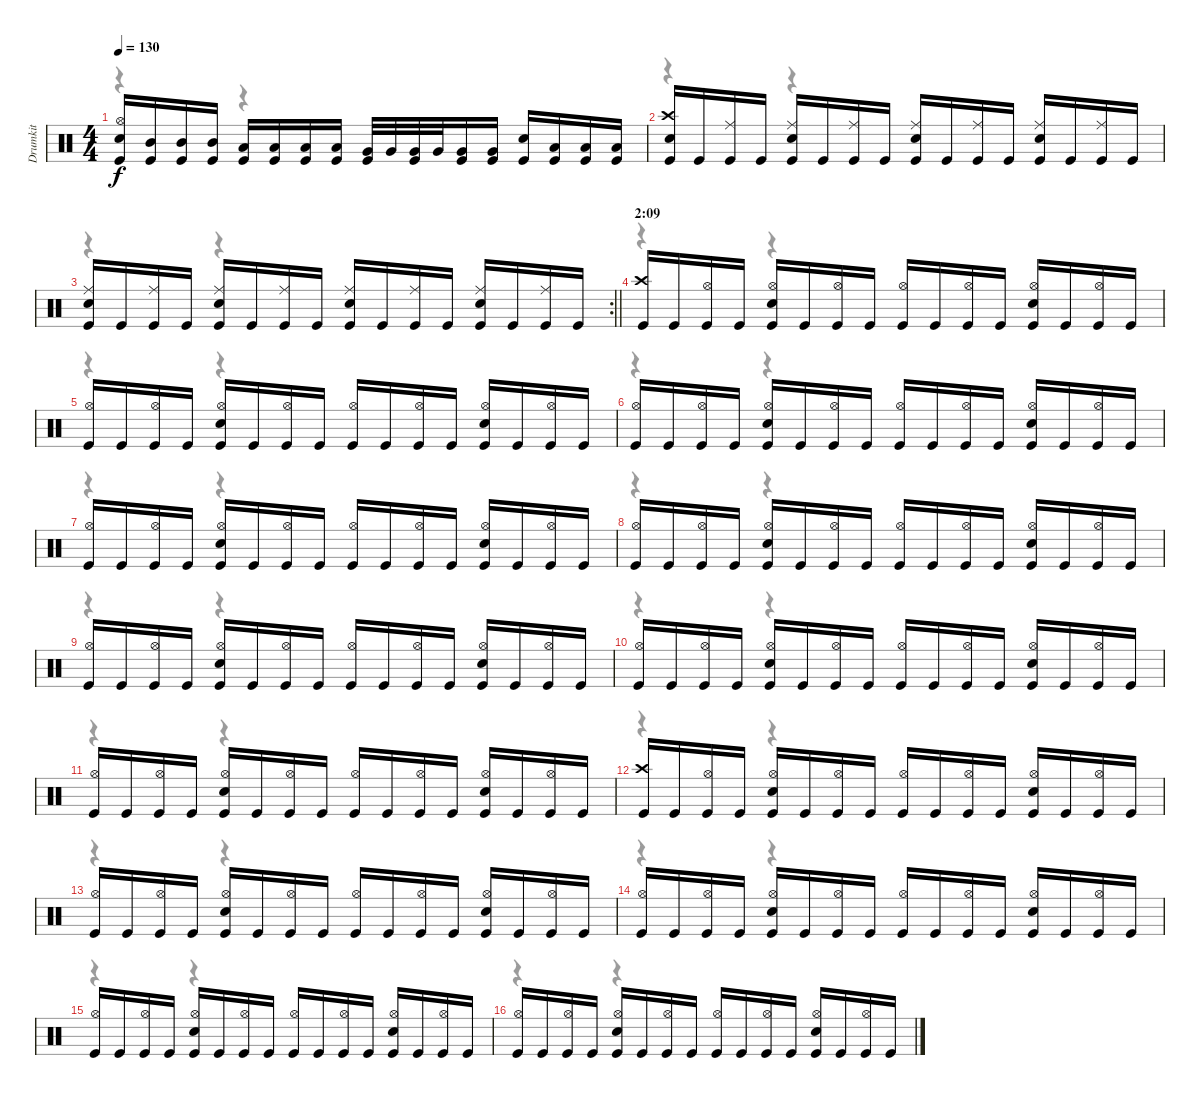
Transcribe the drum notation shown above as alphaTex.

\track ("Drumkit" "Drumkit") {instrument percussion}
\staff {score}
\articulation defaults
\voice
\ts (4 4)
\tempo 130
\clef neutral
\ks c
("Hi-Hat (open)" "Snare (hit) 2" "Kick (hit)").16{dy f} ("Mid Tom (hit)" "Kick (hit)").16 ("Mid Tom (hit)" "Kick (hit)").16 ("Mid Tom (hit)" "Kick (hit)").16 ("Low Tom (hit)" "Kick (hit)").16 ("Low Tom (hit)" "Kick (hit)").16 ("Low Tom (hit)" "Kick (hit)").16 ("Low Tom (hit)" "Kick (hit)").16 ("Very Low Tom (hit)" "Kick (hit)").32 "Very Low Tom (hit)".32 ("Very Low Tom (hit)" "Kick (hit)").32 "Very Low Tom (hit)".32 ("Very Low Tom (hit)" "Kick (hit)").16 ("Very Low Tom (hit)" "Kick (hit)").16 ("Snare (hit) 2" "Kick (hit)").16 ("Low Floor Tom (hit)" "Kick (hit)").16 ("Low Floor Tom (hit)" "Kick (hit)").16 ("Low Floor Tom (hit)" "Kick (hit)").16 |
("Crash high (hit)" "Snare (hit) 2" "Kick (hit)").16 "Kick (hit)".16 ("Ride (middle)" "Kick (hit)").16 "Kick (hit)".16 ("Ride (middle)" "Snare (hit) 2" "Kick (hit)").16 "Kick (hit)".16 ("Ride (middle)" "Kick (hit)").16 "Kick (hit)".16 ("Ride (middle)" "Snare (hit) 2" "Kick (hit)").16 "Kick (hit)".16 ("Ride (middle)" "Kick (hit)").16 "Kick (hit)".16 ("Ride (middle)" "Snare (hit) 2" "Kick (hit)").16 "Kick (hit)".16 ("Ride (middle)" "Kick (hit)").16 "Kick (hit)".16 |
\rc 2
\barLineRight lightlight
("Ride (middle)" "Snare (hit) 2" "Kick (hit)").16 "Kick (hit)".16 ("Ride (middle)" "Kick (hit)").16 "Kick (hit)".16 ("Ride (middle)" "Snare (hit) 2" "Kick (hit)").16 "Kick (hit)".16 ("Ride (middle)" "Kick (hit)").16 "Kick (hit)".16 ("Ride (middle)" "Snare (hit) 2" "Kick (hit)").16 "Kick (hit)".16 ("Ride (middle)" "Kick (hit)").16 "Kick (hit)".16 ("Ride (middle)" "Snare (hit) 2" "Kick (hit)").16 "Kick (hit)".16 ("Ride (middle)" "Kick (hit)").16 "Kick (hit)".16 |
\section ("" "2:09")
("Crash high (hit)" "Kick (hit)").16 "Kick (hit)".16 ("Hi-Hat (open)" "Kick (hit)").16 "Kick (hit)".16 ("Hi-Hat (open)" "Snare (hit) 2" "Kick (hit)").16 "Kick (hit)".16 ("Hi-Hat (open)" "Kick (hit)").16 "Kick (hit)".16 ("Hi-Hat (open)" "Kick (hit)").16 "Kick (hit)".16 ("Hi-Hat (open)" "Kick (hit)").16 "Kick (hit)".16 ("Hi-Hat (open)" "Snare (hit) 2" "Kick (hit)").16 "Kick (hit)".16 ("Hi-Hat (open)" "Kick (hit)").16 "Kick (hit)".16 |
("Hi-Hat (open)" "Kick (hit)").16 "Kick (hit)".16 ("Hi-Hat (open)" "Kick (hit)").16 "Kick (hit)".16 ("Hi-Hat (open)" "Snare (hit) 2" "Kick (hit)").16 "Kick (hit)".16 ("Hi-Hat (open)" "Kick (hit)").16 "Kick (hit)".16 ("Hi-Hat (open)" "Kick (hit)").16 "Kick (hit)".16 ("Hi-Hat (open)" "Kick (hit)").16 "Kick (hit)".16 ("Hi-Hat (open)" "Snare (hit) 2" "Kick (hit)").16 "Kick (hit)".16 ("Hi-Hat (open)" "Kick (hit)").16 "Kick (hit)".16 |
("Hi-Hat (open)" "Kick (hit)").16 "Kick (hit)".16 ("Hi-Hat (open)" "Kick (hit)").16 "Kick (hit)".16 ("Hi-Hat (open)" "Snare (hit) 2" "Kick (hit)").16 "Kick (hit)".16 ("Hi-Hat (open)" "Kick (hit)").16 "Kick (hit)".16 ("Hi-Hat (open)" "Kick (hit)").16 "Kick (hit)".16 ("Hi-Hat (open)" "Kick (hit)").16 "Kick (hit)".16 ("Hi-Hat (open)" "Snare (hit) 2" "Kick (hit)").16 "Kick (hit)".16 ("Hi-Hat (open)" "Kick (hit)").16 "Kick (hit)".16 |
("Hi-Hat (open)" "Kick (hit)").16 "Kick (hit)".16 ("Hi-Hat (open)" "Kick (hit)").16 "Kick (hit)".16 ("Hi-Hat (open)" "Snare (hit) 2" "Kick (hit)").16 "Kick (hit)".16 ("Hi-Hat (open)" "Kick (hit)").16 "Kick (hit)".16 ("Hi-Hat (open)" "Kick (hit)").16 "Kick (hit)".16 ("Hi-Hat (open)" "Kick (hit)").16 "Kick (hit)".16 ("Hi-Hat (open)" "Snare (hit) 2" "Kick (hit)").16 "Kick (hit)".16 ("Hi-Hat (open)" "Kick (hit)").16 "Kick (hit)".16 |
("Hi-Hat (open)" "Kick (hit)").16 "Kick (hit)".16 ("Hi-Hat (open)" "Kick (hit)").16 "Kick (hit)".16 ("Hi-Hat (open)" "Snare (hit) 2" "Kick (hit)").16 "Kick (hit)".16 ("Hi-Hat (open)" "Kick (hit)").16 "Kick (hit)".16 ("Hi-Hat (open)" "Kick (hit)").16 "Kick (hit)".16 ("Hi-Hat (open)" "Kick (hit)").16 "Kick (hit)".16 ("Hi-Hat (open)" "Snare (hit) 2" "Kick (hit)").16 "Kick (hit)".16 ("Hi-Hat (open)" "Kick (hit)").16 "Kick (hit)".16 |
("Hi-Hat (open)" "Kick (hit)").16 "Kick (hit)".16 ("Hi-Hat (open)" "Kick (hit)").16 "Kick (hit)".16 ("Hi-Hat (open)" "Snare (hit) 2" "Kick (hit)").16 "Kick (hit)".16 ("Hi-Hat (open)" "Kick (hit)").16 "Kick (hit)".16 ("Hi-Hat (open)" "Kick (hit)").16 "Kick (hit)".16 ("Hi-Hat (open)" "Kick (hit)").16 "Kick (hit)".16 ("Hi-Hat (open)" "Snare (hit) 2" "Kick (hit)").16 "Kick (hit)".16 ("Hi-Hat (open)" "Kick (hit)").16 "Kick (hit)".16 |
("Hi-Hat (open)" "Kick (hit)").16 "Kick (hit)".16 ("Hi-Hat (open)" "Kick (hit)").16 "Kick (hit)".16 ("Hi-Hat (open)" "Snare (hit) 2" "Kick (hit)").16 "Kick (hit)".16 ("Hi-Hat (open)" "Kick (hit)").16 "Kick (hit)".16 ("Hi-Hat (open)" "Kick (hit)").16 "Kick (hit)".16 ("Hi-Hat (open)" "Kick (hit)").16 "Kick (hit)".16 ("Hi-Hat (open)" "Snare (hit) 2" "Kick (hit)").16 "Kick (hit)".16 ("Hi-Hat (open)" "Kick (hit)").16 "Kick (hit)".16 |
("Hi-Hat (open)" "Kick (hit)").16 "Kick (hit)".16 ("Hi-Hat (open)" "Kick (hit)").16 "Kick (hit)".16 ("Hi-Hat (open)" "Snare (hit) 2" "Kick (hit)").16 "Kick (hit)".16 ("Hi-Hat (open)" "Kick (hit)").16 "Kick (hit)".16 ("Hi-Hat (open)" "Kick (hit)").16 "Kick (hit)".16 ("Hi-Hat (open)" "Kick (hit)").16 "Kick (hit)".16 ("Hi-Hat (open)" "Snare (hit) 2" "Kick (hit)").16 "Kick (hit)".16 ("Hi-Hat (open)" "Kick (hit)").16 "Kick (hit)".16 |
("Crash high (hit)" "Kick (hit)").16 "Kick (hit)".16 ("Hi-Hat (open)" "Kick (hit)").16 "Kick (hit)".16 ("Hi-Hat (open)" "Snare (hit) 2" "Kick (hit)").16 "Kick (hit)".16 ("Hi-Hat (open)" "Kick (hit)").16 "Kick (hit)".16 ("Hi-Hat (open)" "Kick (hit)").16 "Kick (hit)".16 ("Hi-Hat (open)" "Kick (hit)").16 "Kick (hit)".16 ("Hi-Hat (open)" "Snare (hit) 2" "Kick (hit)").16 "Kick (hit)".16 ("Hi-Hat (open)" "Kick (hit)").16 "Kick (hit)".16 |
("Hi-Hat (open)" "Kick (hit)").16 "Kick (hit)".16 ("Hi-Hat (open)" "Kick (hit)").16 "Kick (hit)".16 ("Hi-Hat (open)" "Snare (hit) 2" "Kick (hit)").16 "Kick (hit)".16 ("Hi-Hat (open)" "Kick (hit)").16 "Kick (hit)".16 ("Hi-Hat (open)" "Kick (hit)").16 "Kick (hit)".16 ("Hi-Hat (open)" "Kick (hit)").16 "Kick (hit)".16 ("Hi-Hat (open)" "Snare (hit) 2" "Kick (hit)").16 "Kick (hit)".16 ("Hi-Hat (open)" "Kick (hit)").16 "Kick (hit)".16 |
("Hi-Hat (open)" "Kick (hit)").16 "Kick (hit)".16 ("Hi-Hat (open)" "Kick (hit)").16 "Kick (hit)".16 ("Hi-Hat (open)" "Snare (hit) 2" "Kick (hit)").16 "Kick (hit)".16 ("Hi-Hat (open)" "Kick (hit)").16 "Kick (hit)".16 ("Hi-Hat (open)" "Kick (hit)").16 "Kick (hit)".16 ("Hi-Hat (open)" "Kick (hit)").16 "Kick (hit)".16 ("Hi-Hat (open)" "Snare (hit) 2" "Kick (hit)").16 "Kick (hit)".16 ("Hi-Hat (open)" "Kick (hit)").16 "Kick (hit)".16 |
("Hi-Hat (open)" "Kick (hit)").16 "Kick (hit)".16 ("Hi-Hat (open)" "Kick (hit)").16 "Kick (hit)".16 ("Hi-Hat (open)" "Snare (hit) 2" "Kick (hit)").16 "Kick (hit)".16 ("Hi-Hat (open)" "Kick (hit)").16 "Kick (hit)".16 ("Hi-Hat (open)" "Kick (hit)").16 "Kick (hit)".16 ("Hi-Hat (open)" "Kick (hit)").16 "Kick (hit)".16 ("Hi-Hat (open)" "Snare (hit) 2" "Kick (hit)").16 "Kick (hit)".16 ("Hi-Hat (open)" "Kick (hit)").16 "Kick (hit)".16 |
("Hi-Hat (open)" "Kick (hit)").16 "Kick (hit)".16 ("Hi-Hat (open)" "Kick (hit)").16 "Kick (hit)".16 ("Hi-Hat (open)" "Snare (hit) 2" "Kick (hit)").16 "Kick (hit)".16 ("Hi-Hat (open)" "Kick (hit)").16 "Kick (hit)".16 ("Hi-Hat (open)" "Kick (hit)").16 "Kick (hit)".16 ("Hi-Hat (open)" "Kick (hit)").16 "Kick (hit)".16 ("Hi-Hat (open)" "Snare (hit) 2" "Kick (hit)").16 "Kick (hit)".16 ("Hi-Hat (open)" "Kick (hit)").16 "Kick (hit)".16
\voice
\clef neutral
\ottava regular
\simile none
\ks c
r.4{dy f} r.4 |
r.4 r.4 |
\barLineRight lightlight
r.4 r.4 |
r.4 r.4 |
r.4 r.4 |
r.4 r.4 |
r.4 r.4 |
r.4 r.4 |
r.4 r.4 |
r.4 r.4 |
r.4 r.4 |
r.4 r.4 |
r.4 r.4 |
r.4 r.4 |
r.4 r.4 |
r.4 r.4
